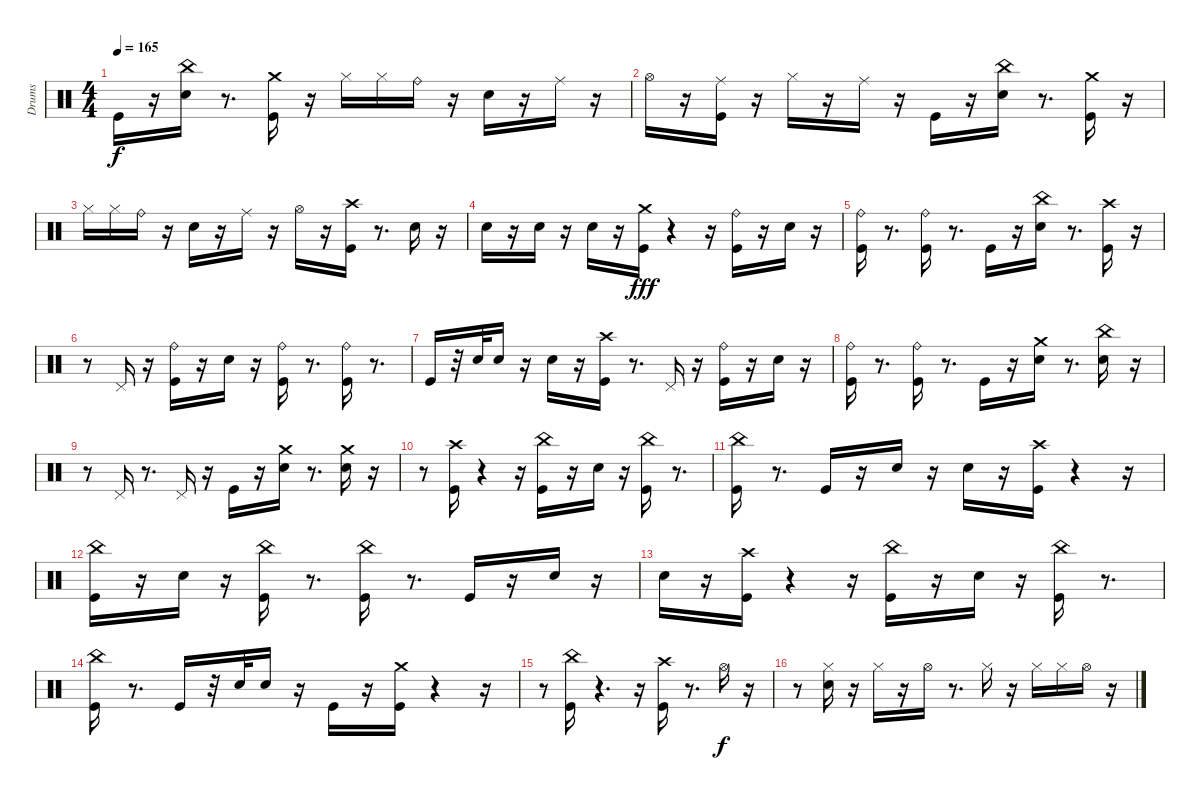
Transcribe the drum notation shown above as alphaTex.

\track ("Drums" "Drums") {instrument percussion}
\staff {score}
\articulation defaults
\ts (4 4)
\tempo 165
\clef neutral
\ks c "Kick (hit)".16{dy f}
r.16 ("China (hit)" "Electric Snare (hit)").16 r.8{d} ("Kick (hit)" "Crash medium (hit)").16 r.16 "Hi-Hat (closed)".16 "Hi-Hat (closed)".16 "Ride (bell)".16 r.16 "Electric Snare (hit)".16 r.16 "Ride (middle)".16 r.16 |
"Hi-Hat (open)".16 r.16 ("Kick (hit)" "Ride (middle)").16 r.16 "Hi-Hat (closed)".16 r.16 "Ride (middle)".16 r.16 "Kick (hit)".16 r.16 ("China (hit)" "Electric Snare (hit)").16 r.8{d} ("Kick (hit)" "Crash medium (hit)").16 r.16 |
"Hi-Hat (closed)".16 "Hi-Hat (closed)".16 "Ride (bell)".16 r.16 "Electric Snare (hit)".16 r.16 "Ride (middle)".16 r.16 "Hi-Hat (open)".16 r.16 ("Kick (hit)" "Crash high (hit)").16 r.8{d} "Electric Snare (hit)".16 r.16 |
"Electric Snare (hit)".16 r.16 "Electric Snare (hit)".16 r.16 "Electric Snare (hit)".16 r.16 ("Kick (hit)" "Crash medium (hit)").16{dy fff} r.4 r.16 ("Ride (bell)" "Kick (hit)").16 r.16 "Electric Snare (hit)".16 r.16 |
("Ride (bell)" "Kick (hit)").16 r.8{d} ("Ride (bell)" "Kick (hit)").16 r.8{d} "Kick (hit)".16 r.16 ("China (hit)" "Electric Snare (hit)").16 r.8{d} ("Kick (hit)" "Crash high (hit)").16 r.16 |
r.8 "Pedal Hi-Hat (hit)".16 r.16 ("Kick (hit)" "Ride (bell)").16 r.16 "Electric Snare (hit)".16 r.16 ("Kick (hit)" "Ride (bell)").16 r.8{d} ("Kick (hit)" "Ride (bell)").16 r.8{d} |
"Kick (hit)".16 r.32 "Electric Snare (hit)".32 "Electric Snare (hit)".16 r.16 "Electric Snare (hit)".16 r.16 ("Kick (hit)" "Crash high (hit)").16 r.8{d} "Pedal Hi-Hat (hit)".16 r.16 ("Kick (hit)" "Ride (bell)").16 r.16 "Electric Snare (hit)".16 r.16 |
("Ride (bell)" "Kick (hit)").16 r.8{d} ("Kick (hit)" "Ride (bell)").16 r.8{d} "Kick (hit)".16 r.16 ("Crash medium (hit)" "Electric Snare (hit)").16 r.8{d} ("Electric Snare (hit)" "China (hit)").16 r.16 |
r.8 "Pedal Hi-Hat (hit)".16 r.8{d} "Pedal Hi-Hat (hit)".16 r.16 "Kick (hit)".16 r.16 ("Crash medium (hit)" "Electric Snare (hit)").16 r.8{d} ("Electric Snare (hit)" "Crash medium (hit)").16 r.16 |
r.8 ("Kick (hit)" "Crash high (hit)").16 r.4 r.16 ("China (hit)" "Kick (hit)").16 r.16 "Electric Snare (hit)".16 r.16 ("China (hit)" "Kick (hit)").16 r.8{d} |
("Kick (hit)" "China (hit)").16 r.8{d} "Kick (hit)".16 r.16 "Electric Snare (hit)".16 r.16 "Electric Snare (hit)".16 r.16 ("Kick (hit)" "Crash high (hit)").16 r.4 r.16 |
("China (hit)" "Kick (hit)").16 r.16 "Electric Snare (hit)".16 r.16 ("China (hit)" "Kick (hit)").16 r.8{d} ("Kick (hit)" "China (hit)").16 r.8{d} "Kick (hit)".16 r.16 "Electric Snare (hit)".16 r.16 |
"Electric Snare (hit)".16 r.16 ("Kick (hit)" "Crash high (hit)").16 r.4 r.16 ("China (hit)" "Kick (hit)").16 r.16 "Electric Snare (hit)".16 r.16 ("China (hit)" "Kick (hit)").16 r.8{d} |
("Kick (hit)" "China (hit)").16 r.8{d} "Kick (hit)".16 r.32 "Electric Snare (hit)".32 "Electric Snare (hit)".16 r.16 "Kick (hit)".16 r.16 ("Kick (hit)" "Crash medium (hit)").16 r.4 r.16 |
r.8 ("Kick (hit)" "China (hit)").16 r.4{d} r.16 ("Kick (hit)" "Crash high (hit)").16 r.8{d} "Hi-Hat (open)".16{dy f} r.16 |
r.8 ("Electric Snare (hit)" "Hi-Hat (closed)").16 r.16 "Hi-Hat (closed)".16 r.16 "Hi-Hat (open)".16 r.8{d} "Hi-Hat (closed)".16 r.16 "Hi-Hat (closed)".16 "Hi-Hat (closed)".16 "Hi-Hat (open)".16 r.16
